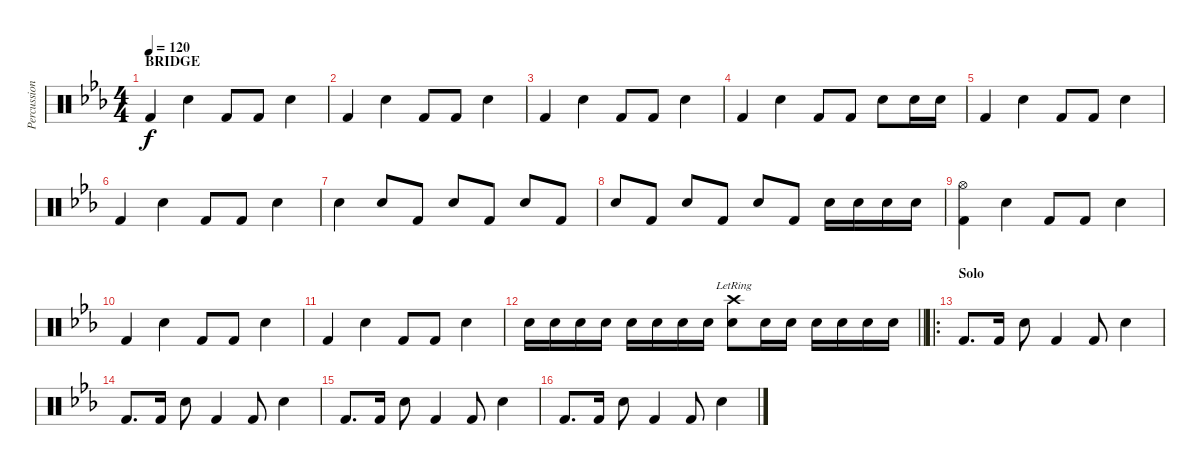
\track ("Percussion" "Percussion") {instrument percussion}
\staff {score}
\articulation defaults
\ts (4 4)
\section ("" "BRIDGE")
\tempo 120
\clef neutral
\ks cminor "Kick (hit) 2".4{dy f} "Snare (hit) 2".4 "Kick (hit) 2".8 "Kick (hit) 2".8 "Snare (hit) 2".4
|
"Kick (hit) 2".4 "Snare (hit) 2".4 "Kick (hit) 2".8 "Kick (hit) 2".8 "Snare (hit) 2".4 |
"Kick (hit) 2".4 "Snare (hit) 2".4 "Kick (hit) 2".8 "Kick (hit) 2".8 "Snare (hit) 2".4 |
"Kick (hit) 2".4 "Snare (hit) 2".4 "Kick (hit) 2".8 "Kick (hit) 2".8 "Snare (hit) 2".8 "Snare (hit) 2".16 "Snare (hit) 2".16 |
"Kick (hit) 2".4 "Snare (hit) 2".4 "Kick (hit) 2".8 "Kick (hit) 2".8 "Snare (hit) 2".4 |
"Kick (hit) 2".4 "Snare (hit) 2".4 "Kick (hit) 2".8 "Kick (hit) 2".8 "Snare (hit) 2".4 |
"Snare (hit) 2".4 "Snare (hit) 2".8 "Kick (hit) 2".8 "Snare (hit) 2".8 "Kick (hit) 2".8 "Snare (hit) 2".8 "Kick (hit) 2".8 |
"Snare (hit) 2".8 "Kick (hit) 2".8 "Snare (hit) 2".8 "Kick (hit) 2".8 "Snare (hit) 2".8 "Kick (hit) 2".8 "Snare (hit) 2".16 "Snare (hit) 2".16 "Snare (hit) 2".16 "Snare (hit) 2".16 |
("Hi-Hat (open)" "Kick (hit) 2").4 "Snare (hit) 2".4 "Kick (hit) 2".8 "Kick (hit) 2".8 "Snare (hit) 2".4 |
"Kick (hit) 2".4 "Snare (hit) 2".4 "Kick (hit) 2".8 "Kick (hit) 2".8 "Snare (hit) 2".4 |
"Kick (hit) 2".4 "Snare (hit) 2".4 "Kick (hit) 2".8 "Kick (hit) 2".8 "Snare (hit) 2".4 |
\barLineRight lightlight "Snare (hit) 2".16 "Snare (hit) 2".16 "Snare (hit) 2".16 "Snare (hit) 2".16 "Snare (hit) 2".16 "Snare (hit) 2".16 "Snare (hit) 2".16 "Snare (hit) 2".16
("Snare (hit) 2" "Crash high (hit)"{lr}).8 "Snare (hit) 2".16 "Snare (hit) 2".16 "Snare (hit) 2".16 "Snare (hit) 2".16 "Snare (hit) 2".16 "Snare (hit) 2".16 |
\ro
\section ("" "Solo")
"Kick (hit) 2".8{d} "Kick (hit) 2".16 "Snare (hit) 2".8 "Kick (hit) 2".4 "Kick (hit) 2".8 "Snare (hit) 2".4 |
"Kick (hit) 2".8{d} "Kick (hit) 2".16 "Snare (hit) 2".8 "Kick (hit) 2".4 "Kick (hit) 2".8 "Snare (hit) 2".4 |
"Kick (hit) 2".8{d} "Kick (hit) 2".16 "Snare (hit) 2".8 "Kick (hit) 2".4 "Kick (hit) 2".8 "Snare (hit) 2".4 |
"Kick (hit) 2".8{d} "Kick (hit) 2".16 "Snare (hit) 2".8 "Kick (hit) 2".4 "Kick (hit) 2".8 "Snare (hit) 2".4
